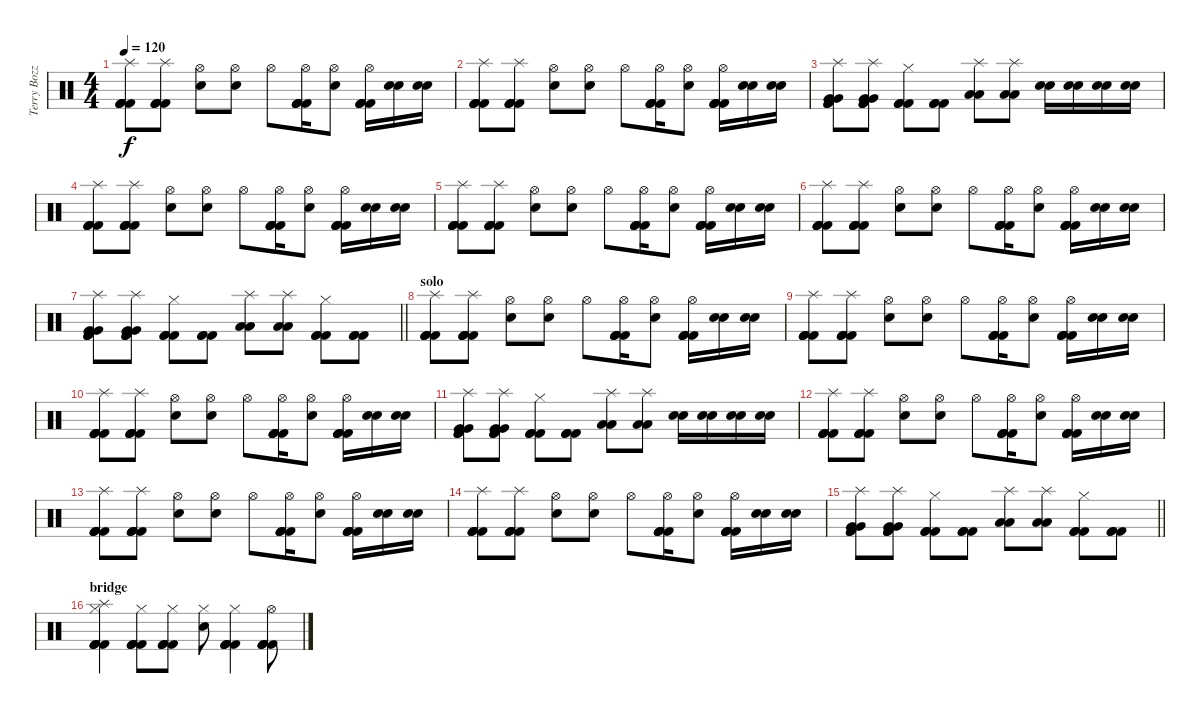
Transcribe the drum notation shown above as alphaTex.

\track ("Terry Bozzio" "Terry Bozz") {instrument percussion}
\staff {score}
\articulation defaults
\ts (4 4)
\tempo 120
\clef neutral
\ks c
("Splash (hit)" "Kick (hit) 2" "Kick (hit) 2" "Kick (hit) 2" "Kick (hit) 2").8{dy f} ("Splash (hit)" "Kick (hit) 2" "Kick (hit) 2" "Kick (hit) 2" "Kick (hit) 2").8 ("Hi-Hat (open)" "Snare (hit) 2").8 ("Hi-Hat (open)" "Snare (hit) 2").8 "Hi-Hat (open)".8 ("Hi-Hat (open)" "Kick (hit) 2" "Kick (hit) 2" "Kick (hit) 2" "Kick (hit) 2").16 ("Hi-Hat (open)" "Snare (hit) 2").8 ("Hi-Hat (open)" "Kick (hit) 2" "Kick (hit) 2" "Kick (hit) 2" "Kick (hit) 2").16 ("Snare (hit) 2" "Snare (hit) 2").16 ("Snare (hit) 2" "Snare (hit) 2").16 |
("Splash (hit)" "Kick (hit) 2" "Kick (hit) 2" "Kick (hit) 2" "Kick (hit) 2").8 ("Splash (hit)" "Kick (hit) 2" "Kick (hit) 2" "Kick (hit) 2" "Kick (hit) 2").8 ("Hi-Hat (open)" "Snare (hit) 2").8 ("Hi-Hat (open)" "Snare (hit) 2").8 "Hi-Hat (open)".8 ("Hi-Hat (open)" "Kick (hit) 2" "Kick (hit) 2" "Kick (hit) 2" "Kick (hit) 2").16 ("Hi-Hat (open)" "Snare (hit) 2").8 ("Hi-Hat (open)" "Kick (hit) 2" "Kick (hit) 2" "Kick (hit) 2" "Kick (hit) 2").16 ("Snare (hit) 2" "Snare (hit) 2").16 ("Snare (hit) 2" "Snare (hit) 2").16 |
("Splash (hit)" "Very Low Tom (hit)" "Very Low Tom (hit)" "Kick (hit) 2" "Kick (hit) 2" "Kick (hit) 2").8 ("Splash (hit)" "Very Low Tom (hit)" "Very Low Tom (hit)" "Kick (hit) 2" "Kick (hit) 2" "Kick (hit) 2").8 ("Hi-Hat (closed)" "Kick (hit) 2" "Kick (hit) 2" "Kick (hit) 2").8 ("Kick (hit) 2" "Kick (hit) 2" "Kick (hit) 2").8 ("Splash (hit)" "Low Floor Tom (hit)" "Low Floor Tom (hit)").8 ("Splash (hit)" "Low Floor Tom (hit)" "Low Floor Tom (hit)").8 ("Snare (hit) 2" "Snare (hit) 2").16 ("Snare (hit) 2" "Snare (hit) 2").16 ("Snare (hit) 2" "Snare (hit) 2").16 ("Snare (hit) 2" "Snare (hit) 2").16 |
("Splash (hit)" "Kick (hit) 2" "Kick (hit) 2" "Kick (hit) 2" "Kick (hit) 2").8 ("Splash (hit)" "Kick (hit) 2" "Kick (hit) 2" "Kick (hit) 2" "Kick (hit) 2").8 ("Hi-Hat (open)" "Snare (hit) 2").8 ("Hi-Hat (open)" "Snare (hit) 2").8 "Hi-Hat (open)".8 ("Hi-Hat (open)" "Kick (hit) 2" "Kick (hit) 2" "Kick (hit) 2" "Kick (hit) 2").16 ("Hi-Hat (open)" "Snare (hit) 2").8 ("Hi-Hat (open)" "Kick (hit) 2" "Kick (hit) 2" "Kick (hit) 2" "Kick (hit) 2").16 ("Snare (hit) 2" "Snare (hit) 2").16 ("Snare (hit) 2" "Snare (hit) 2").16 |
("Splash (hit)" "Kick (hit) 2" "Kick (hit) 2" "Kick (hit) 2" "Kick (hit) 2").8 ("Splash (hit)" "Kick (hit) 2" "Kick (hit) 2" "Kick (hit) 2" "Kick (hit) 2").8 ("Hi-Hat (open)" "Snare (hit) 2").8 ("Hi-Hat (open)" "Snare (hit) 2").8 "Hi-Hat (open)".8 ("Hi-Hat (open)" "Kick (hit) 2" "Kick (hit) 2" "Kick (hit) 2" "Kick (hit) 2").16 ("Hi-Hat (open)" "Snare (hit) 2").8 ("Hi-Hat (open)" "Kick (hit) 2" "Kick (hit) 2" "Kick (hit) 2" "Kick (hit) 2").16 ("Snare (hit) 2" "Snare (hit) 2").16 ("Snare (hit) 2" "Snare (hit) 2").16 |
("Splash (hit)" "Kick (hit) 2" "Kick (hit) 2" "Kick (hit) 2" "Kick (hit) 2").8 ("Splash (hit)" "Kick (hit) 2" "Kick (hit) 2" "Kick (hit) 2" "Kick (hit) 2").8 ("Hi-Hat (open)" "Snare (hit) 2").8 ("Hi-Hat (open)" "Snare (hit) 2").8 "Hi-Hat (open)".8 ("Hi-Hat (open)" "Kick (hit) 2" "Kick (hit) 2" "Kick (hit) 2" "Kick (hit) 2").16 ("Hi-Hat (open)" "Snare (hit) 2").8 ("Hi-Hat (open)" "Kick (hit) 2" "Kick (hit) 2" "Kick (hit) 2" "Kick (hit) 2").16 ("Snare (hit) 2" "Snare (hit) 2").16 ("Snare (hit) 2" "Snare (hit) 2").16 |
\barLineRight lightlight
("Splash (hit)" "Very Low Tom (hit)" "Very Low Tom (hit)" "Kick (hit) 2" "Kick (hit) 2" "Kick (hit) 2").8 ("Splash (hit)" "Very Low Tom (hit)" "Very Low Tom (hit)" "Kick (hit) 2" "Kick (hit) 2" "Kick (hit) 2").8 ("Hi-Hat (closed)" "Kick (hit) 2" "Kick (hit) 2" "Kick (hit) 2").8 ("Kick (hit) 2" "Kick (hit) 2" "Kick (hit) 2").8 ("Splash (hit)" "Low Floor Tom (hit)" "Low Floor Tom (hit)").8 ("Splash (hit)" "Low Floor Tom (hit)" "Low Floor Tom (hit)").8 ("Hi-Hat (closed)" "Kick (hit) 2" "Kick (hit) 2" "Kick (hit) 2").8 ("Kick (hit) 2" "Kick (hit) 2" "Kick (hit) 2").8 |
\section ("" "solo")
("Splash (hit)" "Kick (hit) 2" "Kick (hit) 2" "Kick (hit) 2" "Kick (hit) 2").8 ("Splash (hit)" "Kick (hit) 2" "Kick (hit) 2" "Kick (hit) 2" "Kick (hit) 2").8 ("Hi-Hat (open)" "Snare (hit) 2").8 ("Hi-Hat (open)" "Snare (hit) 2").8 "Hi-Hat (open)".8 ("Hi-Hat (open)" "Kick (hit) 2" "Kick (hit) 2" "Kick (hit) 2" "Kick (hit) 2").16 ("Hi-Hat (open)" "Snare (hit) 2").8 ("Hi-Hat (open)" "Kick (hit) 2" "Kick (hit) 2" "Kick (hit) 2" "Kick (hit) 2").16 ("Snare (hit) 2" "Snare (hit) 2").16 ("Snare (hit) 2" "Snare (hit) 2").16 |
("Splash (hit)" "Kick (hit) 2" "Kick (hit) 2" "Kick (hit) 2" "Kick (hit) 2").8 ("Splash (hit)" "Kick (hit) 2" "Kick (hit) 2" "Kick (hit) 2" "Kick (hit) 2").8 ("Hi-Hat (open)" "Snare (hit) 2").8 ("Hi-Hat (open)" "Snare (hit) 2").8 "Hi-Hat (open)".8 ("Hi-Hat (open)" "Kick (hit) 2" "Kick (hit) 2" "Kick (hit) 2" "Kick (hit) 2").16 ("Hi-Hat (open)" "Snare (hit) 2").8 ("Hi-Hat (open)" "Kick (hit) 2" "Kick (hit) 2" "Kick (hit) 2" "Kick (hit) 2").16 ("Snare (hit) 2" "Snare (hit) 2").16 ("Snare (hit) 2" "Snare (hit) 2").16 |
("Splash (hit)" "Kick (hit) 2" "Kick (hit) 2" "Kick (hit) 2" "Kick (hit) 2").8 ("Splash (hit)" "Kick (hit) 2" "Kick (hit) 2" "Kick (hit) 2" "Kick (hit) 2").8 ("Hi-Hat (open)" "Snare (hit) 2").8 ("Hi-Hat (open)" "Snare (hit) 2").8 "Hi-Hat (open)".8 ("Hi-Hat (open)" "Kick (hit) 2" "Kick (hit) 2" "Kick (hit) 2" "Kick (hit) 2").16 ("Hi-Hat (open)" "Snare (hit) 2").8 ("Hi-Hat (open)" "Kick (hit) 2" "Kick (hit) 2" "Kick (hit) 2" "Kick (hit) 2").16 ("Snare (hit) 2" "Snare (hit) 2").16 ("Snare (hit) 2" "Snare (hit) 2").16 |
("Splash (hit)" "Very Low Tom (hit)" "Very Low Tom (hit)" "Kick (hit) 2" "Kick (hit) 2" "Kick (hit) 2").8 ("Splash (hit)" "Very Low Tom (hit)" "Very Low Tom (hit)" "Kick (hit) 2" "Kick (hit) 2" "Kick (hit) 2").8 ("Hi-Hat (closed)" "Kick (hit) 2" "Kick (hit) 2" "Kick (hit) 2").8 ("Kick (hit) 2" "Kick (hit) 2" "Kick (hit) 2").8 ("Splash (hit)" "Low Floor Tom (hit)" "Low Floor Tom (hit)").8 ("Splash (hit)" "Low Floor Tom (hit)" "Low Floor Tom (hit)").8 ("Snare (hit) 2" "Snare (hit) 2").16 ("Snare (hit) 2" "Snare (hit) 2").16 ("Snare (hit) 2" "Snare (hit) 2").16 ("Snare (hit) 2" "Snare (hit) 2").16 |
("Splash (hit)" "Kick (hit) 2" "Kick (hit) 2" "Kick (hit) 2" "Kick (hit) 2").8 ("Splash (hit)" "Kick (hit) 2" "Kick (hit) 2" "Kick (hit) 2" "Kick (hit) 2").8 ("Hi-Hat (open)" "Snare (hit) 2").8 ("Hi-Hat (open)" "Snare (hit) 2").8 "Hi-Hat (open)".8 ("Hi-Hat (open)" "Kick (hit) 2" "Kick (hit) 2" "Kick (hit) 2" "Kick (hit) 2").16 ("Hi-Hat (open)" "Snare (hit) 2").8 ("Hi-Hat (open)" "Kick (hit) 2" "Kick (hit) 2" "Kick (hit) 2" "Kick (hit) 2").16 ("Snare (hit) 2" "Snare (hit) 2").16 ("Snare (hit) 2" "Snare (hit) 2").16 |
("Splash (hit)" "Kick (hit) 2" "Kick (hit) 2" "Kick (hit) 2" "Kick (hit) 2").8 ("Splash (hit)" "Kick (hit) 2" "Kick (hit) 2" "Kick (hit) 2" "Kick (hit) 2").8 ("Hi-Hat (open)" "Snare (hit) 2").8 ("Hi-Hat (open)" "Snare (hit) 2").8 "Hi-Hat (open)".8 ("Hi-Hat (open)" "Kick (hit) 2" "Kick (hit) 2" "Kick (hit) 2" "Kick (hit) 2").16 ("Hi-Hat (open)" "Snare (hit) 2").8 ("Hi-Hat (open)" "Kick (hit) 2" "Kick (hit) 2" "Kick (hit) 2" "Kick (hit) 2").16 ("Snare (hit) 2" "Snare (hit) 2").16 ("Snare (hit) 2" "Snare (hit) 2").16 |
("Splash (hit)" "Kick (hit) 2" "Kick (hit) 2" "Kick (hit) 2" "Kick (hit) 2").8 ("Splash (hit)" "Kick (hit) 2" "Kick (hit) 2" "Kick (hit) 2" "Kick (hit) 2").8 ("Hi-Hat (open)" "Snare (hit) 2").8 ("Hi-Hat (open)" "Snare (hit) 2").8 "Hi-Hat (open)".8 ("Hi-Hat (open)" "Kick (hit) 2" "Kick (hit) 2" "Kick (hit) 2" "Kick (hit) 2").16 ("Hi-Hat (open)" "Snare (hit) 2").8 ("Hi-Hat (open)" "Kick (hit) 2" "Kick (hit) 2" "Kick (hit) 2" "Kick (hit) 2").16 ("Snare (hit) 2" "Snare (hit) 2").16 ("Snare (hit) 2" "Snare (hit) 2").16 |
\barLineRight lightlight
("Splash (hit)" "Very Low Tom (hit)" "Very Low Tom (hit)" "Kick (hit) 2" "Kick (hit) 2" "Kick (hit) 2").8 ("Splash (hit)" "Very Low Tom (hit)" "Very Low Tom (hit)" "Kick (hit) 2" "Kick (hit) 2" "Kick (hit) 2").8 ("Hi-Hat (closed)" "Kick (hit) 2" "Kick (hit) 2" "Kick (hit) 2").8 ("Kick (hit) 2" "Kick (hit) 2" "Kick (hit) 2").8 ("Splash (hit)" "Low Floor Tom (hit)" "Low Floor Tom (hit)").8 ("Splash (hit)" "Low Floor Tom (hit)" "Low Floor Tom (hit)").8 ("Hi-Hat (closed)" "Kick (hit) 2" "Kick (hit) 2" "Kick (hit) 2").8 ("Kick (hit) 2" "Kick (hit) 2" "Kick (hit) 2").8 |
\section ("" "bridge")
("Splash (hit)" "Hi-Hat (closed)" "Kick (hit) 2" "Kick (hit) 2" "Kick (hit) 2" "Kick (hit) 2").4 ("Hi-Hat (closed)" "Kick (hit) 2" "Kick (hit) 2" "Kick (hit) 2" "Kick (hit) 2").8 ("Hi-Hat (closed)" "Kick (hit) 2" "Kick (hit) 2" "Kick (hit) 2" "Kick (hit) 2").8 ("Hi-Hat (closed)" "Snare (hit) 2").8 ("Hi-Hat (closed)" "Kick (hit) 2" "Kick (hit) 2" "Kick (hit) 2" "Kick (hit) 2").4 ("Hi-Hat (open)" "Kick (hit) 2" "Kick (hit) 2" "Kick (hit) 2" "Kick (hit) 2").8
